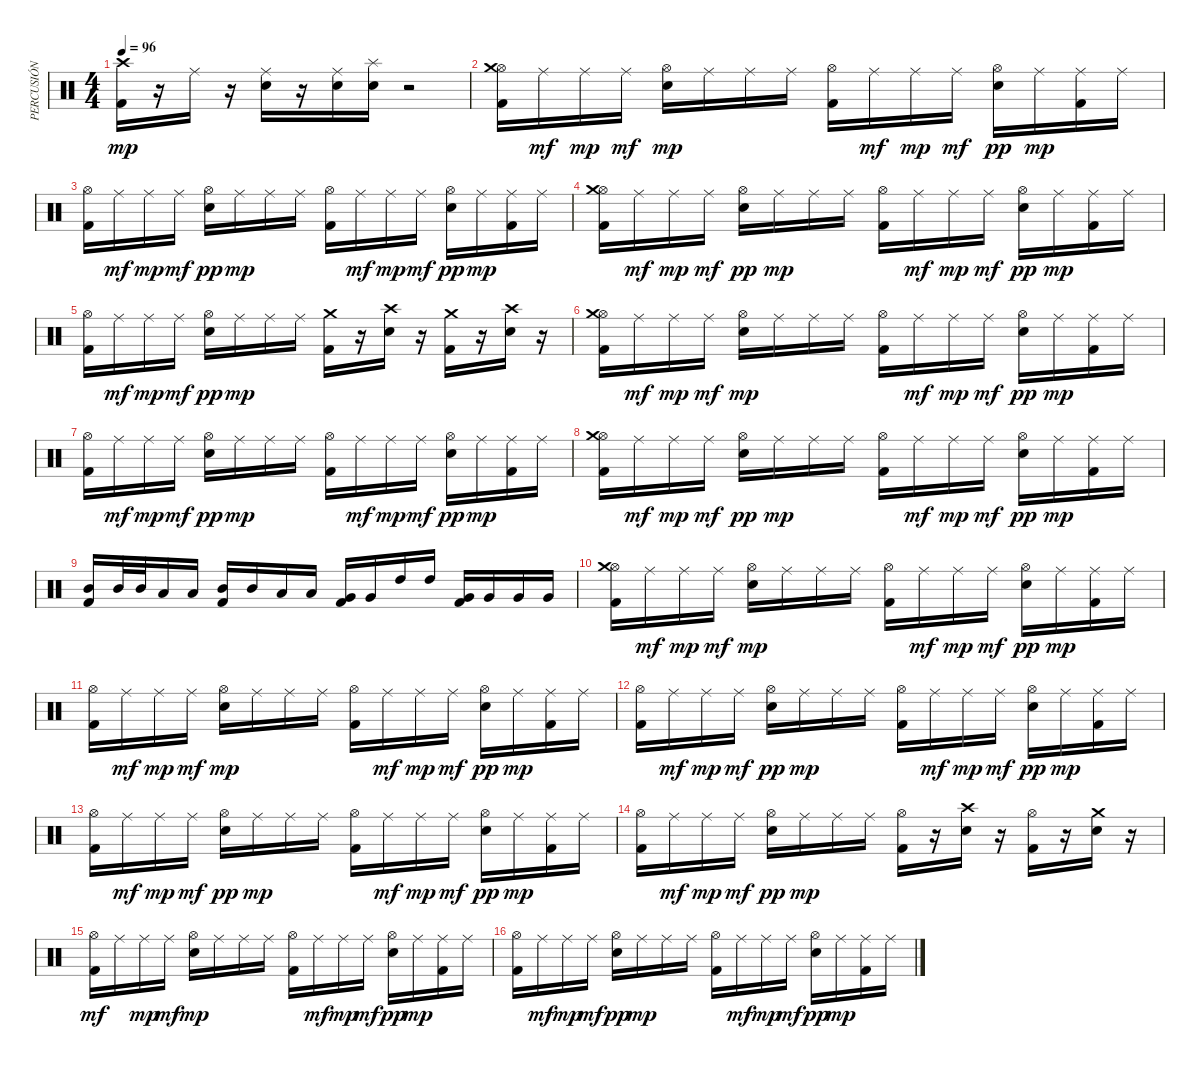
\track ("PERCUSIÓN" "PERCUSIÓN") {instrument percussion}
\staff {score}
\articulation defaults
\ts (4 4)
\tempo 96
\clef neutral
\ks c
("Kick (hit) 2" "Crash high (hit)").16{dy mp} r.16 "Ride (middle)".16 r.16 ("Snare (hit) 2" "Ride (middle)").16 r.16 ("Ride (middle)" "Snare (hit) 2").16 ("Snare (hit) 2" "Splash (hit)").16 r.2 |
("Kick (hit) 2" "Hi-Hat (open)" "Crash medium (hit)").16 "Ride (middle)".16{dy mf} "Ride (middle)".16{dy mp} "Ride (middle)".16{dy mf} ("Snare (hit) 2" "Hi-Hat (open)").16{dy mp} "Ride (middle)".16 "Ride (middle)".16 "Ride (middle)".16 ("Kick (hit) 2" "Hi-Hat (open)").16 "Ride (middle)".16{dy mf} "Ride (middle)".16{dy mp} "Ride (middle)".16{dy mf} ("Snare (hit) 2" "Hi-Hat (open)").16{dy pp} "Ride (middle)".16{dy mp} ("Kick (hit) 2" "Ride (middle)").16 "Ride (middle)".16 |
("Kick (hit) 2" "Hi-Hat (open)").16 "Ride (middle)".16{dy mf} "Ride (middle)".16{dy mp} "Ride (middle)".16{dy mf} ("Snare (hit) 2" "Hi-Hat (open)").16{dy pp} "Ride (middle)".16{dy mp} "Ride (middle)".16 "Ride (middle)".16 ("Kick (hit) 2" "Hi-Hat (open)").16 "Ride (middle)".16{dy mf} "Ride (middle)".16{dy mp} "Ride (middle)".16{dy mf} ("Snare (hit) 2" "Hi-Hat (open)").16{dy pp} "Ride (middle)".16{dy mp} ("Kick (hit) 2" "Ride (middle)").16 "Ride (middle)".16 |
("Kick (hit) 2" "Hi-Hat (open)" "Crash medium (hit)").16 "Ride (middle)".16{dy mf} "Ride (middle)".16{dy mp} "Ride (middle)".16{dy mf} ("Snare (hit) 2" "Hi-Hat (open)").16{dy pp} "Ride (middle)".16{dy mp} "Ride (middle)".16 "Ride (middle)".16 ("Kick (hit) 2" "Hi-Hat (open)").16 "Ride (middle)".16{dy mf} "Ride (middle)".16{dy mp} "Ride (middle)".16{dy mf} ("Snare (hit) 2" "Hi-Hat (open)").16{dy pp} "Ride (middle)".16{dy mp} ("Kick (hit) 2" "Ride (middle)").16 "Ride (middle)".16 |
("Kick (hit) 2" "Hi-Hat (open)").16 "Ride (middle)".16{dy mf} "Ride (middle)".16{dy mp} "Ride (middle)".16{dy mf} ("Snare (hit) 2" "Hi-Hat (open)").16{dy pp} "Ride (middle)".16{dy mp} "Ride (middle)".16 "Ride (middle)".16 ("Kick (hit) 2" "Crash medium (hit)").16 r.16 ("Snare (hit) 2" "Crash high (hit)").16 r.16 ("Kick (hit) 2" "Crash medium (hit)").16 r.16 ("Snare (hit) 2" "Crash high (hit)").16 r.16 |
("Kick (hit) 2" "Hi-Hat (open)" "Crash medium (hit)").16 "Ride (middle)".16{dy mf} "Ride (middle)".16{dy mp} "Ride (middle)".16{dy mf} ("Snare (hit) 2" "Hi-Hat (open)").16{dy mp} "Ride (middle)".16 "Ride (middle)".16 "Ride (middle)".16 ("Kick (hit) 2" "Hi-Hat (open)").16 "Ride (middle)".16{dy mf} "Ride (middle)".16{dy mp} "Ride (middle)".16{dy mf} ("Snare (hit) 2" "Hi-Hat (open)").16{dy pp} "Ride (middle)".16{dy mp} ("Kick (hit) 2" "Ride (middle)").16 "Ride (middle)".16 |
("Kick (hit) 2" "Hi-Hat (open)").16 "Ride (middle)".16{dy mf} "Ride (middle)".16{dy mp} "Ride (middle)".16{dy mf} ("Snare (hit) 2" "Hi-Hat (open)").16{dy pp} "Ride (middle)".16{dy mp} "Ride (middle)".16 "Ride (middle)".16 ("Kick (hit) 2" "Hi-Hat (open)").16 "Ride (middle)".16{dy mf} "Ride (middle)".16{dy mp} "Ride (middle)".16{dy mf} ("Snare (hit) 2" "Hi-Hat (open)").16{dy pp} "Ride (middle)".16{dy mp} ("Kick (hit) 2" "Ride (middle)").16 "Ride (middle)".16 |
("Kick (hit) 2" "Hi-Hat (open)" "Crash medium (hit)").16 "Ride (middle)".16{dy mf} "Ride (middle)".16{dy mp} "Ride (middle)".16{dy mf} ("Snare (hit) 2" "Hi-Hat (open)").16{dy pp} "Ride (middle)".16{dy mp} "Ride (middle)".16 "Ride (middle)".16 ("Kick (hit) 2" "Hi-Hat (open)").16 "Ride (middle)".16{dy mf} "Ride (middle)".16{dy mp} "Ride (middle)".16{dy mf} ("Snare (hit) 2" "Hi-Hat (open)").16{dy pp} "Ride (middle)".16{dy mp} ("Kick (hit) 2" "Ride (middle)").16 "Ride (middle)".16 |
("Kick (hit) 2" "Mid Tom (hit)").16 "Mid Tom (hit)".32 "Mid Tom (hit)".32 "Low Tom (hit)".16 "Low Tom (hit)".16 ("Mid Tom (hit)" "Kick (hit) 2").16 "Mid Tom (hit)".16 "Low Tom (hit)".16 "Low Tom (hit)".16 ("Kick (hit) 2" "Very Low Tom (hit)").16 "Very Low Tom (hit)".16 "High Tom (hit)".16 "High Tom (hit)".16 ("Kick (hit) 2" "Very Low Tom (hit)").16 "Very Low Tom (hit)".16 "Very Low Tom (hit)".16 "Very Low Tom (hit)".16 |
("Kick (hit) 2" "Hi-Hat (open)" "Crash medium (hit)").16 "Ride (middle)".16{dy mf} "Ride (middle)".16{dy mp} "Ride (middle)".16{dy mf} ("Snare (hit) 2" "Hi-Hat (open)").16{dy mp} "Ride (middle)".16 "Ride (middle)".16 "Ride (middle)".16 ("Kick (hit) 2" "Hi-Hat (open)").16 "Ride (middle)".16{dy mf} "Ride (middle)".16{dy mp} "Ride (middle)".16{dy mf} ("Snare (hit) 2" "Hi-Hat (open)").16{dy pp} "Ride (middle)".16{dy mp} ("Kick (hit) 2" "Ride (middle)").16 "Ride (middle)".16 |
("Hi-Hat (open)" "Kick (hit) 2").16 "Ride (middle)".16{dy mf} "Ride (middle)".16{dy mp} "Ride (middle)".16{dy mf} ("Snare (hit) 2" "Hi-Hat (open)").16{dy mp} "Ride (middle)".16 "Ride (middle)".16 "Ride (middle)".16 ("Kick (hit) 2" "Hi-Hat (open)").16 "Ride (middle)".16{dy mf} "Ride (middle)".16{dy mp} "Ride (middle)".16{dy mf} ("Snare (hit) 2" "Hi-Hat (open)").16{dy pp} "Ride (middle)".16{dy mp} ("Kick (hit) 2" "Ride (middle)").16 "Ride (middle)".16 |
("Hi-Hat (open)" "Kick (hit) 2").16 "Ride (middle)".16{dy mf} "Ride (middle)".16{dy mp} "Ride (middle)".16{dy mf} ("Snare (hit) 2" "Hi-Hat (open)").16{dy pp} "Ride (middle)".16{dy mp} "Ride (middle)".16 "Ride (middle)".16 ("Kick (hit) 2" "Hi-Hat (open)").16 "Ride (middle)".16{dy mf} "Ride (middle)".16{dy mp} "Ride (middle)".16{dy mf} ("Snare (hit) 2" "Hi-Hat (open)").16{dy pp} "Ride (middle)".16{dy mp} ("Kick (hit) 2" "Ride (middle)").16 "Ride (middle)".16 |
("Kick (hit) 2" "Hi-Hat (open)").16 "Ride (middle)".16{dy mf} "Ride (middle)".16{dy mp} "Ride (middle)".16{dy mf} ("Snare (hit) 2" "Hi-Hat (open)").16{dy pp} "Ride (middle)".16{dy mp} "Ride (middle)".16 "Ride (middle)".16 ("Kick (hit) 2" "Hi-Hat (open)").16 "Ride (middle)".16{dy mf} "Ride (middle)".16{dy mp} "Ride (middle)".16{dy mf} ("Snare (hit) 2" "Hi-Hat (open)").16{dy pp} "Ride (middle)".16{dy mp} ("Kick (hit) 2" "Ride (middle)").16 "Ride (middle)".16 |
("Hi-Hat (open)" "Kick (hit) 2").16 "Ride (middle)".16{dy mf} "Ride (middle)".16{dy mp} "Ride (middle)".16{dy mf} ("Snare (hit) 2" "Hi-Hat (open)").16{dy pp} "Ride (middle)".16{dy mp} "Ride (middle)".16 "Ride (middle)".16 ("Kick (hit) 2" "Hi-Hat (open)").16 r.16 ("Snare (hit) 2" "Crash high (hit)").16 r.16 ("Kick (hit) 2" "Hi-Hat (open)").16 r.16 ("Snare (hit) 2" "Crash medium (hit)").16 r.16 |
("Kick (hit) 2" "Hi-Hat (open)").16{dy mf} "Ride (middle)".16 "Ride (middle)".16{dy mp} "Ride (middle)".16{dy mf} ("Snare (hit) 2" "Hi-Hat (open)").16{dy mp} "Ride (middle)".16 "Ride (middle)".16 "Ride (middle)".16 ("Kick (hit) 2" "Hi-Hat (open)").16 "Ride (middle)".16{dy mf} "Ride (middle)".16{dy mp} "Ride (middle)".16{dy mf} ("Snare (hit) 2" "Hi-Hat (open)").16{dy pp} "Ride (middle)".16{dy mp} ("Kick (hit) 2" "Ride (middle)").16 "Ride (middle)".16 |
("Kick (hit) 2" "Hi-Hat (open)").16 "Ride (middle)".16{dy mf} "Ride (middle)".16{dy mp} "Ride (middle)".16{dy mf} ("Snare (hit) 2" "Hi-Hat (open)").16{dy pp} "Ride (middle)".16{dy mp} "Ride (middle)".16 "Ride (middle)".16 ("Kick (hit) 2" "Hi-Hat (open)").16 "Ride (middle)".16{dy mf} "Ride (middle)".16{dy mp} "Ride (middle)".16{dy mf} ("Snare (hit) 2" "Hi-Hat (open)").16{dy pp} "Ride (middle)".16{dy mp} ("Kick (hit) 2" "Ride (middle)").16 "Ride (middle)".16
